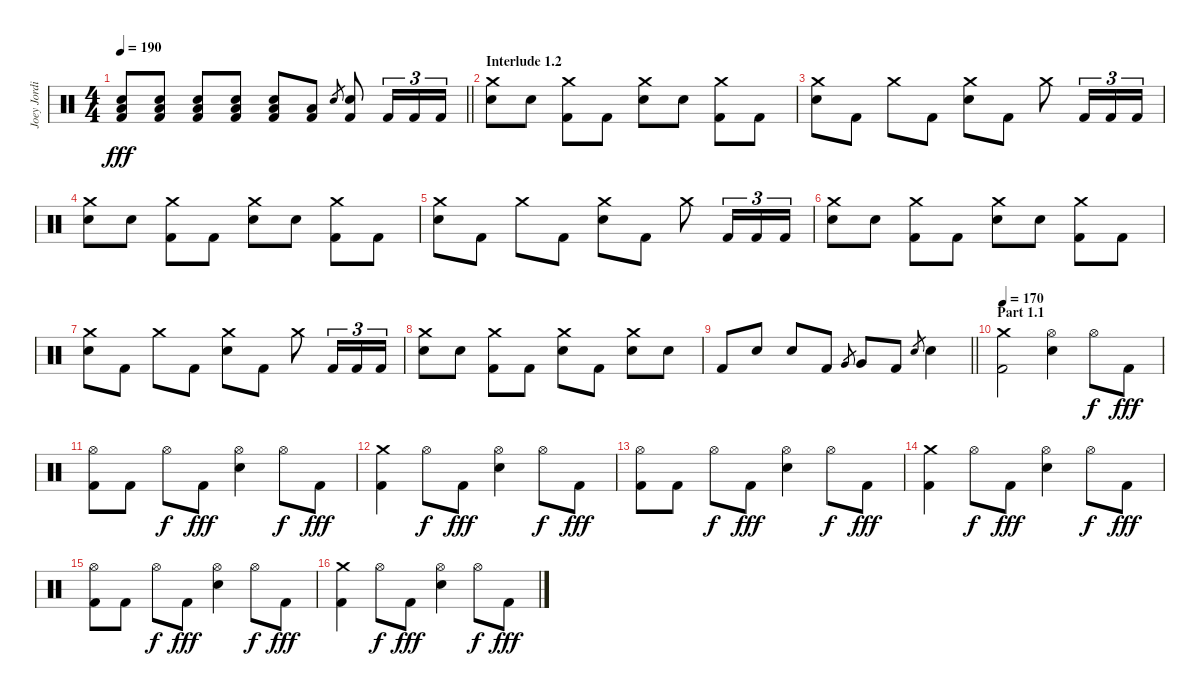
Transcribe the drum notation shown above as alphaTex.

\track ("Joey Jordison" "Joey Jordi") {instrument percussion}
\staff {score}
\articulation defaults
\ts (4 4)
\tempo 190
\clef neutral
\barLineRight lightlight
\ks c
("Electric Snare (hit)" "Low Floor Tom (hit)" "Kick (hit) 2").8{dy fff} ("Electric Snare (hit)" "Low Floor Tom (hit)" "Kick (hit) 2").8 ("Electric Snare (hit)" "Low Floor Tom (hit)" "Kick (hit) 2").8 ("Electric Snare (hit)" "Low Floor Tom (hit)" "Kick (hit) 2").8 ("Electric Snare (hit)" "Low Floor Tom (hit)" "Kick (hit) 2").8 ("Low Floor Tom (hit)" "Kick (hit) 2").8 "Electric Snare (hit)".8{gr} ("Electric Snare (hit)" "Kick (hit) 2").8 "Kick (hit) 2".16{tu (3 2)} "Kick (hit) 2".16{tu (3 2)} "Kick (hit) 2".16{tu (3 2)} |
\section ("" "Interlude 1.2")
("Crash medium (hit)" "Electric Snare (hit)").8 "Electric Snare (hit)".8 ("Crash medium (hit)" "Kick (hit) 2").8 "Kick (hit) 2".8 ("Crash medium (hit)" "Electric Snare (hit)").8 "Electric Snare (hit)".8 ("Crash medium (hit)" "Kick (hit) 2").8 "Kick (hit) 2".8 |
("Crash medium (hit)" "Electric Snare (hit)").8 "Kick (hit) 2".8 "Crash medium (hit)".8 "Kick (hit) 2".8 ("Crash medium (hit)" "Electric Snare (hit)").8 "Kick (hit) 2".8 "Crash medium (hit)".8 "Kick (hit) 2".16{tu (3 2)} "Kick (hit) 2".16{tu (3 2)} "Kick (hit) 2".16{tu (3 2)} |
("Crash medium (hit)" "Electric Snare (hit)").8 "Electric Snare (hit)".8 ("Crash medium (hit)" "Kick (hit) 2").8 "Kick (hit) 2".8 ("Crash medium (hit)" "Electric Snare (hit)").8 "Electric Snare (hit)".8 ("Crash medium (hit)" "Kick (hit) 2").8 "Kick (hit) 2".8 |
("Crash medium (hit)" "Electric Snare (hit)").8 "Kick (hit) 2".8 "Crash medium (hit)".8 "Kick (hit) 2".8 ("Crash medium (hit)" "Electric Snare (hit)").8 "Kick (hit) 2".8 "Crash medium (hit)".8 "Kick (hit) 2".16{tu (3 2)} "Kick (hit) 2".16{tu (3 2)} "Kick (hit) 2".16{tu (3 2)} |
("Crash medium (hit)" "Electric Snare (hit)").8 "Electric Snare (hit)".8 ("Crash medium (hit)" "Kick (hit) 2").8 "Kick (hit) 2".8 ("Crash medium (hit)" "Electric Snare (hit)").8 "Electric Snare (hit)".8 ("Crash medium (hit)" "Kick (hit) 2").8 "Kick (hit) 2".8 |
("Crash medium (hit)" "Electric Snare (hit)").8 "Kick (hit) 2".8 "Crash medium (hit)".8 "Kick (hit) 2".8 ("Crash medium (hit)" "Electric Snare (hit)").8 "Kick (hit) 2".8 "Crash medium (hit)".8 "Kick (hit) 2".16{tu (3 2)} "Kick (hit) 2".16{tu (3 2)} "Kick (hit) 2".16{tu (3 2)} |
("Crash medium (hit)" "Electric Snare (hit)").8 "Electric Snare (hit)".8 ("Crash medium (hit)" "Kick (hit) 2").8 "Kick (hit) 2".8 ("Crash medium (hit)" "Electric Snare (hit)").8 "Kick (hit) 2".8 ("Crash medium (hit)" "Electric Snare (hit)").8 "Electric Snare (hit)".8 |
\barLineRight lightlight "Kick (hit) 2".8 "Electric Snare (hit)".8 "Electric Snare (hit)".8 "Kick (hit) 2".8 "Very Low Tom (hit)".8{gr} "Very Low Tom (hit)".8 "Kick (hit) 2".8 "Electric Snare (hit)".8{gr} "Electric Snare (hit)".4
|
\section ("" "Part 1.1")
\tempo 170
("Crash medium (hit)" "Kick (hit) 2").2 ("Hi-Hat (open)" "Electric Snare (hit)").4 "Hi-Hat (open)".8{dy f} "Kick (hit) 2".8{dy fff} |
("Hi-Hat (open)" "Kick (hit) 2").8 "Kick (hit) 2".8 "Hi-Hat (open)".8{dy f} "Kick (hit) 2".8{dy fff} ("Hi-Hat (open)" "Electric Snare (hit)").4 "Hi-Hat (open)".8{dy f} "Kick (hit) 2".8{dy fff} |
("Crash medium (hit)" "Kick (hit) 2").4 "Hi-Hat (open)".8{dy f} "Kick (hit) 2".8{dy fff} ("Hi-Hat (open)" "Electric Snare (hit)").4 "Hi-Hat (open)".8{dy f} "Kick (hit) 2".8{dy fff} |
("Hi-Hat (open)" "Kick (hit) 2").8 "Kick (hit) 2".8 "Hi-Hat (open)".8{dy f} "Kick (hit) 2".8{dy fff} ("Hi-Hat (open)" "Electric Snare (hit)").4 "Hi-Hat (open)".8{dy f} "Kick (hit) 2".8{dy fff} |
("Crash medium (hit)" "Kick (hit) 2").4 "Hi-Hat (open)".8{dy f} "Kick (hit) 2".8{dy fff} ("Hi-Hat (open)" "Electric Snare (hit)").4 "Hi-Hat (open)".8{dy f} "Kick (hit) 2".8{dy fff} |
("Hi-Hat (open)" "Kick (hit) 2").8 "Kick (hit) 2".8 "Hi-Hat (open)".8{dy f} "Kick (hit) 2".8{dy fff} ("Hi-Hat (open)" "Electric Snare (hit)").4 "Hi-Hat (open)".8{dy f} "Kick (hit) 2".8{dy fff} |
("Crash medium (hit)" "Kick (hit) 2").4 "Hi-Hat (open)".8{dy f} "Kick (hit) 2".8{dy fff} ("Hi-Hat (open)" "Electric Snare (hit)").4 "Hi-Hat (open)".8{dy f} "Kick (hit) 2".8{dy fff}
